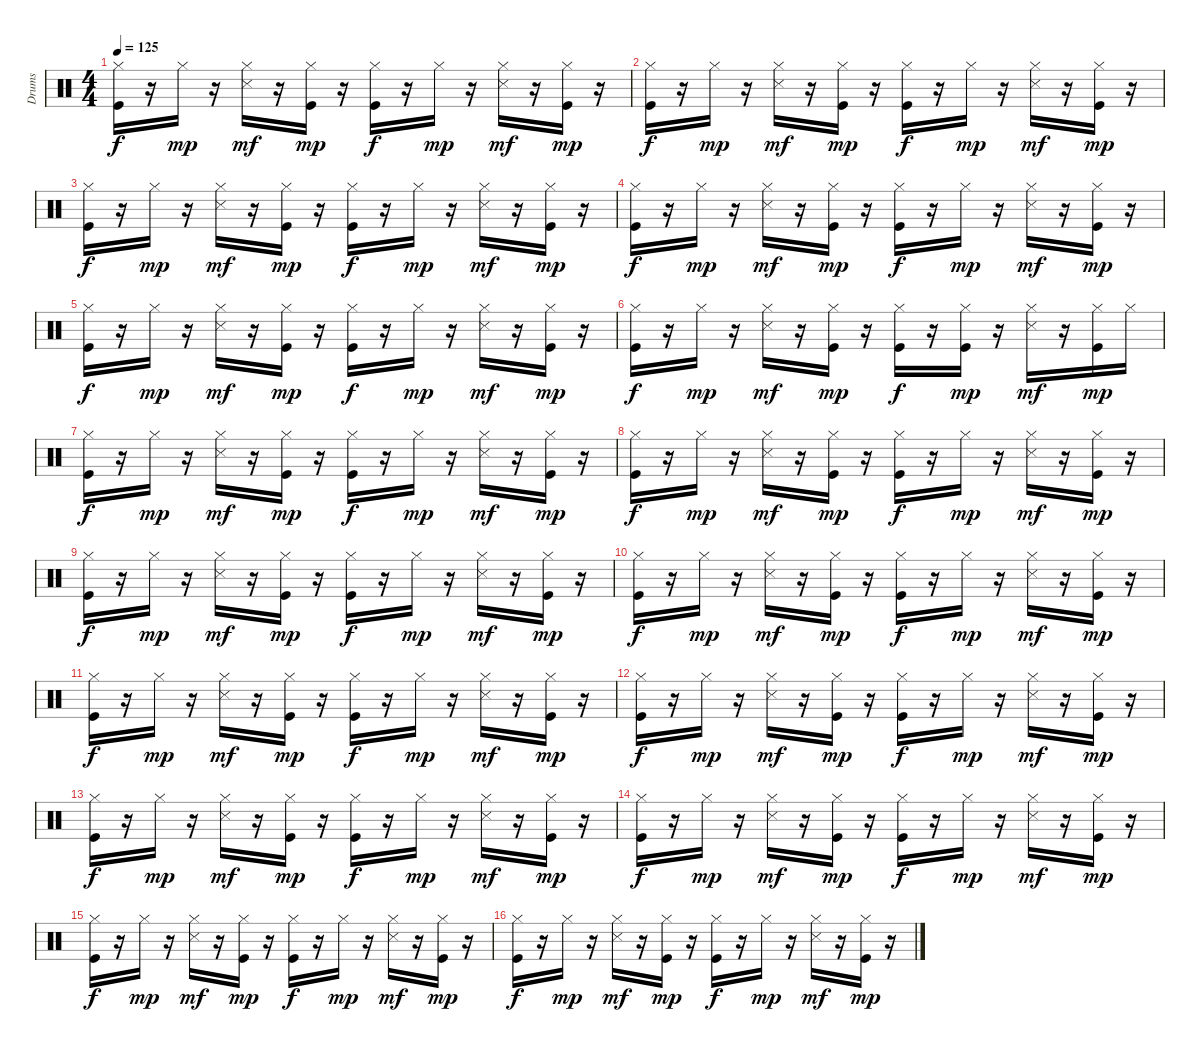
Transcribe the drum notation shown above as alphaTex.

\track ("Drums   " "Drums   ") {solo instrument percussion}
\staff {score}
\articulation defaults
\ts (4 4)
\tempo 125
\clef neutral
\ks c
("Kick (hit)" "Hi-Hat (closed)").16{dy f} r.16 "Hi-Hat (closed)".16{dy mp} r.16 ("Hi-Hat (closed)" "Snare (side stick) 3").16{dy mf} r.16 ("Kick (hit)" "Hi-Hat (closed)").16{dy mp} r.16 ("Kick (hit)" "Hi-Hat (closed)").16{dy f} r.16 "Hi-Hat (closed)".16{dy mp} r.16 ("Hi-Hat (closed)" "Snare (side stick) 3").16{dy mf} r.16 ("Kick (hit)" "Hi-Hat (closed)").16{dy mp} r.16 |
("Kick (hit)" "Hi-Hat (closed)").16{dy f} r.16 "Hi-Hat (closed)".16{dy mp} r.16 ("Hi-Hat (closed)" "Snare (side stick) 3").16{dy mf} r.16 ("Kick (hit)" "Hi-Hat (closed)").16{dy mp} r.16 ("Kick (hit)" "Hi-Hat (closed)").16{dy f} r.16 "Hi-Hat (closed)".16{dy mp} r.16 ("Hi-Hat (closed)" "Snare (side stick) 3").16{dy mf} r.16 ("Kick (hit)" "Hi-Hat (closed)").16{dy mp} r.16 |
("Kick (hit)" "Hi-Hat (closed)").16{dy f} r.16 "Hi-Hat (closed)".16{dy mp} r.16 ("Hi-Hat (closed)" "Snare (side stick) 3").16{dy mf} r.16 ("Kick (hit)" "Hi-Hat (closed)").16{dy mp} r.16 ("Kick (hit)" "Hi-Hat (closed)").16{dy f} r.16 "Hi-Hat (closed)".16{dy mp} r.16 ("Hi-Hat (closed)" "Snare (side stick) 3").16{dy mf} r.16 ("Kick (hit)" "Hi-Hat (closed)").16{dy mp} r.16 |
("Kick (hit)" "Hi-Hat (closed)").16{dy f} r.16 "Hi-Hat (closed)".16{dy mp} r.16 ("Hi-Hat (closed)" "Snare (side stick) 3").16{dy mf} r.16 ("Kick (hit)" "Hi-Hat (closed)").16{dy mp} r.16 ("Kick (hit)" "Hi-Hat (closed)").16{dy f} r.16 "Hi-Hat (closed)".16{dy mp} r.16 ("Hi-Hat (closed)" "Snare (side stick) 3").16{dy mf} r.16 ("Kick (hit)" "Hi-Hat (closed)").16{dy mp} r.16 |
("Kick (hit)" "Hi-Hat (closed)").16{dy f} r.16 "Hi-Hat (closed)".16{dy mp} r.16 ("Hi-Hat (closed)" "Snare (side stick) 3").16{dy mf} r.16 ("Kick (hit)" "Hi-Hat (closed)").16{dy mp} r.16 ("Kick (hit)" "Hi-Hat (closed)").16{dy f} r.16 "Hi-Hat (closed)".16{dy mp} r.16 ("Hi-Hat (closed)" "Snare (side stick) 3").16{dy mf} r.16 ("Kick (hit)" "Hi-Hat (closed)").16{dy mp} r.16 |
("Kick (hit)" "Hi-Hat (closed)").16{dy f} r.16 "Hi-Hat (closed)".16{dy mp} r.16 ("Hi-Hat (closed)" "Snare (side stick) 3").16{dy mf} r.16 ("Kick (hit)" "Hi-Hat (closed)").16{dy mp} r.16 ("Kick (hit)" "Hi-Hat (closed)").16{dy f} r.16 ("Kick (hit)" "Hi-Hat (closed)").16{dy mp} r.16 ("Hi-Hat (closed)" "Snare (side stick) 3").16{dy mf} r.16 ("Kick (hit)" "Hi-Hat (closed)").16{dy mp} "Hi-Hat (closed)".16 |
("Kick (hit)" "Hi-Hat (closed)").16{dy f} r.16 "Hi-Hat (closed)".16{dy mp} r.16 ("Hi-Hat (closed)" "Snare (side stick) 3").16{dy mf} r.16 ("Kick (hit)" "Hi-Hat (closed)").16{dy mp} r.16 ("Kick (hit)" "Hi-Hat (closed)").16{dy f} r.16 "Hi-Hat (closed)".16{dy mp} r.16 ("Hi-Hat (closed)" "Snare (side stick) 3").16{dy mf} r.16 ("Kick (hit)" "Hi-Hat (closed)").16{dy mp} r.16 |
("Kick (hit)" "Hi-Hat (closed)").16{dy f} r.16 "Hi-Hat (closed)".16{dy mp} r.16 ("Hi-Hat (closed)" "Snare (side stick) 3").16{dy mf} r.16 ("Kick (hit)" "Hi-Hat (closed)").16{dy mp} r.16 ("Kick (hit)" "Hi-Hat (closed)").16{dy f} r.16 "Hi-Hat (closed)".16{dy mp} r.16 ("Hi-Hat (closed)" "Snare (side stick) 3").16{dy mf} r.16 ("Kick (hit)" "Hi-Hat (closed)").16{dy mp} r.16 |
("Kick (hit)" "Hi-Hat (closed)").16{dy f} r.16 "Hi-Hat (closed)".16{dy mp} r.16 ("Hi-Hat (closed)" "Snare (side stick) 3").16{dy mf} r.16 ("Kick (hit)" "Hi-Hat (closed)").16{dy mp} r.16 ("Kick (hit)" "Hi-Hat (closed)").16{dy f} r.16 "Hi-Hat (closed)".16{dy mp} r.16 ("Hi-Hat (closed)" "Snare (side stick) 3").16{dy mf} r.16 ("Kick (hit)" "Hi-Hat (closed)").16{dy mp} r.16 |
("Kick (hit)" "Hi-Hat (closed)").16{dy f} r.16 "Hi-Hat (closed)".16{dy mp} r.16 ("Hi-Hat (closed)" "Snare (side stick) 3").16{dy mf} r.16 ("Kick (hit)" "Hi-Hat (closed)").16{dy mp} r.16 ("Kick (hit)" "Hi-Hat (closed)").16{dy f} r.16 "Hi-Hat (closed)".16{dy mp} r.16 ("Hi-Hat (closed)" "Snare (side stick) 3").16{dy mf} r.16 ("Kick (hit)" "Hi-Hat (closed)").16{dy mp} r.16 |
("Kick (hit)" "Hi-Hat (closed)").16{dy f} r.16 "Hi-Hat (closed)".16{dy mp} r.16 ("Hi-Hat (closed)" "Snare (side stick) 3").16{dy mf} r.16 ("Kick (hit)" "Hi-Hat (closed)").16{dy mp} r.16 ("Kick (hit)" "Hi-Hat (closed)").16{dy f} r.16 "Hi-Hat (closed)".16{dy mp} r.16 ("Hi-Hat (closed)" "Snare (side stick) 3").16{dy mf} r.16 ("Kick (hit)" "Hi-Hat (closed)").16{dy mp} r.16 |
("Kick (hit)" "Hi-Hat (closed)").16{dy f} r.16 "Hi-Hat (closed)".16{dy mp} r.16 ("Hi-Hat (closed)" "Snare (side stick) 3").16{dy mf} r.16 ("Kick (hit)" "Hi-Hat (closed)").16{dy mp} r.16 ("Kick (hit)" "Hi-Hat (closed)").16{dy f} r.16 "Hi-Hat (closed)".16{dy mp} r.16 ("Hi-Hat (closed)" "Snare (side stick) 3").16{dy mf} r.16 ("Kick (hit)" "Hi-Hat (closed)").16{dy mp} r.16 |
("Kick (hit)" "Hi-Hat (closed)").16{dy f} r.16 "Hi-Hat (closed)".16{dy mp} r.16 ("Hi-Hat (closed)" "Snare (side stick) 3").16{dy mf} r.16 ("Kick (hit)" "Hi-Hat (closed)").16{dy mp} r.16 ("Kick (hit)" "Hi-Hat (closed)").16{dy f} r.16 "Hi-Hat (closed)".16{dy mp} r.16 ("Hi-Hat (closed)" "Snare (side stick) 3").16{dy mf} r.16 ("Kick (hit)" "Hi-Hat (closed)").16{dy mp} r.16 |
("Kick (hit)" "Hi-Hat (closed)").16{dy f} r.16 "Hi-Hat (closed)".16{dy mp} r.16 ("Hi-Hat (closed)" "Snare (side stick) 3").16{dy mf} r.16 ("Kick (hit)" "Hi-Hat (closed)").16{dy mp} r.16 ("Kick (hit)" "Hi-Hat (closed)").16{dy f} r.16 "Hi-Hat (closed)".16{dy mp} r.16 ("Hi-Hat (closed)" "Snare (side stick) 3").16{dy mf} r.16 ("Kick (hit)" "Hi-Hat (closed)").16{dy mp} r.16 |
("Kick (hit)" "Hi-Hat (closed)").16{dy f} r.16 "Hi-Hat (closed)".16{dy mp} r.16 ("Hi-Hat (closed)" "Snare (side stick) 3").16{dy mf} r.16 ("Kick (hit)" "Hi-Hat (closed)").16{dy mp} r.16 ("Kick (hit)" "Hi-Hat (closed)").16{dy f} r.16 "Hi-Hat (closed)".16{dy mp} r.16 ("Hi-Hat (closed)" "Snare (side stick) 3").16{dy mf} r.16 ("Kick (hit)" "Hi-Hat (closed)").16{dy mp} r.16 |
("Kick (hit)" "Hi-Hat (closed)").16{dy f} r.16 "Hi-Hat (closed)".16{dy mp} r.16 ("Hi-Hat (closed)" "Snare (side stick) 3").16{dy mf} r.16 ("Kick (hit)" "Hi-Hat (closed)").16{dy mp} r.16 ("Kick (hit)" "Hi-Hat (closed)").16{dy f} r.16 "Hi-Hat (closed)".16{dy mp} r.16 ("Hi-Hat (closed)" "Snare (side stick) 3").16{dy mf} r.16 ("Kick (hit)" "Hi-Hat (closed)").16{dy mp} r.16
